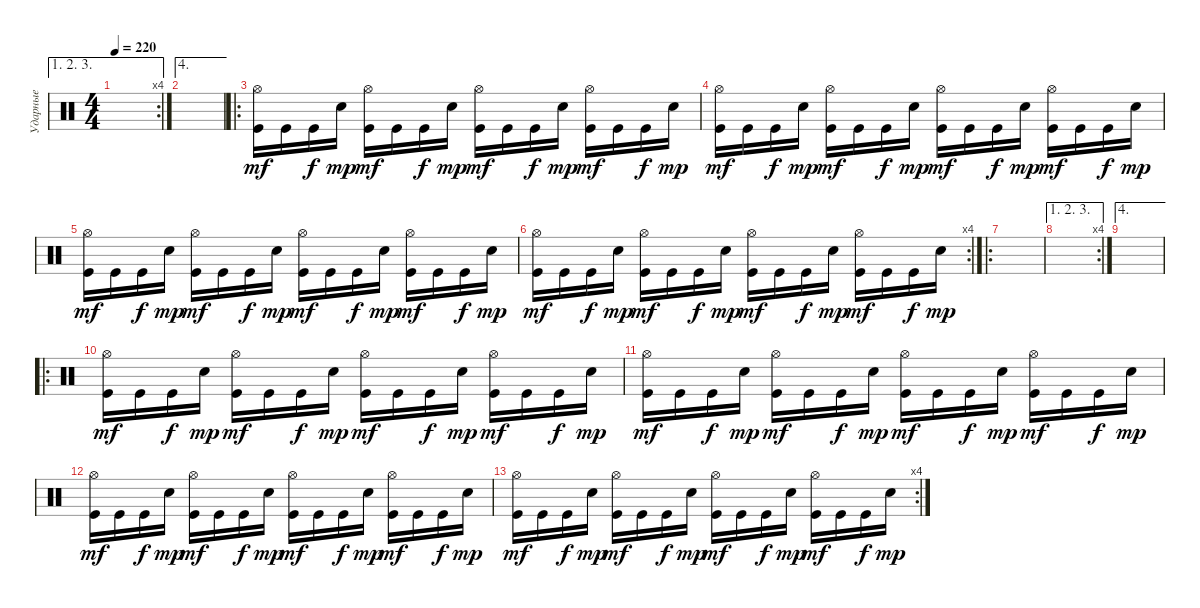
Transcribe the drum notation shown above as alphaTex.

\track ("Ударные" "Ударные") {instrument percussion}
\staff {score}
\articulation defaults
\ae (1 2 3)
\rc 4
\ts (4 4)
\tempo 220
\clef neutral
\ks c
|
\ae 4
|
\ro
("Hi-Hat (open)" "Kick (hit)").16{dy mf} "Kick (hit)".16 "Kick (hit)".16{dy f} "Electric Snare (hit)".16{dy mp} ("Hi-Hat (open)" "Kick (hit)").16{dy mf} "Kick (hit)".16 "Kick (hit)".16{dy f} "Electric Snare (hit)".16{dy mp} ("Hi-Hat (open)" "Kick (hit)").16{dy mf} "Kick (hit)".16 "Kick (hit)".16{dy f} "Electric Snare (hit)".16{dy mp} ("Hi-Hat (open)" "Kick (hit)").16{dy mf} "Kick (hit)".16 "Kick (hit)".16{dy f} "Electric Snare (hit)".16{dy mp} |
("Hi-Hat (open)" "Kick (hit)").16{dy mf} "Kick (hit)".16 "Kick (hit)".16{dy f} "Electric Snare (hit)".16{dy mp} ("Hi-Hat (open)" "Kick (hit)").16{dy mf} "Kick (hit)".16 "Kick (hit)".16{dy f} "Electric Snare (hit)".16{dy mp} ("Hi-Hat (open)" "Kick (hit)").16{dy mf} "Kick (hit)".16 "Kick (hit)".16{dy f} "Electric Snare (hit)".16{dy mp} ("Hi-Hat (open)" "Kick (hit)").16{dy mf} "Kick (hit)".16 "Kick (hit)".16{dy f} "Electric Snare (hit)".16{dy mp} |
("Hi-Hat (open)" "Kick (hit)").16{dy mf} "Kick (hit)".16 "Kick (hit)".16{dy f} "Electric Snare (hit)".16{dy mp} ("Hi-Hat (open)" "Kick (hit)").16{dy mf} "Kick (hit)".16 "Kick (hit)".16{dy f} "Electric Snare (hit)".16{dy mp} ("Hi-Hat (open)" "Kick (hit)").16{dy mf} "Kick (hit)".16 "Kick (hit)".16{dy f} "Electric Snare (hit)".16{dy mp} ("Hi-Hat (open)" "Kick (hit)").16{dy mf} "Kick (hit)".16 "Kick (hit)".16{dy f} "Electric Snare (hit)".16{dy mp} |
\rc 4
("Hi-Hat (open)" "Kick (hit)").16{dy mf} "Kick (hit)".16 "Kick (hit)".16{dy f} "Electric Snare (hit)".16{dy mp} ("Hi-Hat (open)" "Kick (hit)").16{dy mf} "Kick (hit)".16 "Kick (hit)".16{dy f} "Electric Snare (hit)".16{dy mp} ("Hi-Hat (open)" "Kick (hit)").16{dy mf} "Kick (hit)".16 "Kick (hit)".16{dy f} "Electric Snare (hit)".16{dy mp} ("Hi-Hat (open)" "Kick (hit)").16{dy mf} "Kick (hit)".16 "Kick (hit)".16{dy f} "Electric Snare (hit)".16{dy mp} |
\ro
|
\ae (1 2 3)
\rc 4
|
\ae 4
|
\ro
("Hi-Hat (open)" "Kick (hit)").16{dy mf} "Kick (hit)".16 "Kick (hit)".16{dy f} "Electric Snare (hit)".16{dy mp} ("Hi-Hat (open)" "Kick (hit)").16{dy mf} "Kick (hit)".16 "Kick (hit)".16{dy f} "Electric Snare (hit)".16{dy mp} ("Hi-Hat (open)" "Kick (hit)").16{dy mf} "Kick (hit)".16 "Kick (hit)".16{dy f} "Electric Snare (hit)".16{dy mp} ("Hi-Hat (open)" "Kick (hit)").16{dy mf} "Kick (hit)".16 "Kick (hit)".16{dy f} "Electric Snare (hit)".16{dy mp} |
("Hi-Hat (open)" "Kick (hit)").16{dy mf} "Kick (hit)".16 "Kick (hit)".16{dy f} "Electric Snare (hit)".16{dy mp} ("Hi-Hat (open)" "Kick (hit)").16{dy mf} "Kick (hit)".16 "Kick (hit)".16{dy f} "Electric Snare (hit)".16{dy mp} ("Hi-Hat (open)" "Kick (hit)").16{dy mf} "Kick (hit)".16 "Kick (hit)".16{dy f} "Electric Snare (hit)".16{dy mp} ("Hi-Hat (open)" "Kick (hit)").16{dy mf} "Kick (hit)".16 "Kick (hit)".16{dy f} "Electric Snare (hit)".16{dy mp} |
("Hi-Hat (open)" "Kick (hit)").16{dy mf} "Kick (hit)".16 "Kick (hit)".16{dy f} "Electric Snare (hit)".16{dy mp} ("Hi-Hat (open)" "Kick (hit)").16{dy mf} "Kick (hit)".16 "Kick (hit)".16{dy f} "Electric Snare (hit)".16{dy mp} ("Hi-Hat (open)" "Kick (hit)").16{dy mf} "Kick (hit)".16 "Kick (hit)".16{dy f} "Electric Snare (hit)".16{dy mp} ("Hi-Hat (open)" "Kick (hit)").16{dy mf} "Kick (hit)".16 "Kick (hit)".16{dy f} "Electric Snare (hit)".16{dy mp} |
\rc 4
("Hi-Hat (open)" "Kick (hit)").16{dy mf} "Kick (hit)".16 "Kick (hit)".16{dy f} "Electric Snare (hit)".16{dy mp} ("Hi-Hat (open)" "Kick (hit)").16{dy mf} "Kick (hit)".16 "Kick (hit)".16{dy f} "Electric Snare (hit)".16{dy mp} ("Hi-Hat (open)" "Kick (hit)").16{dy mf} "Kick (hit)".16 "Kick (hit)".16{dy f} "Electric Snare (hit)".16{dy mp} ("Hi-Hat (open)" "Kick (hit)").16{dy mf} "Kick (hit)".16 "Kick (hit)".16{dy f} "Electric Snare (hit)".16{dy mp}
